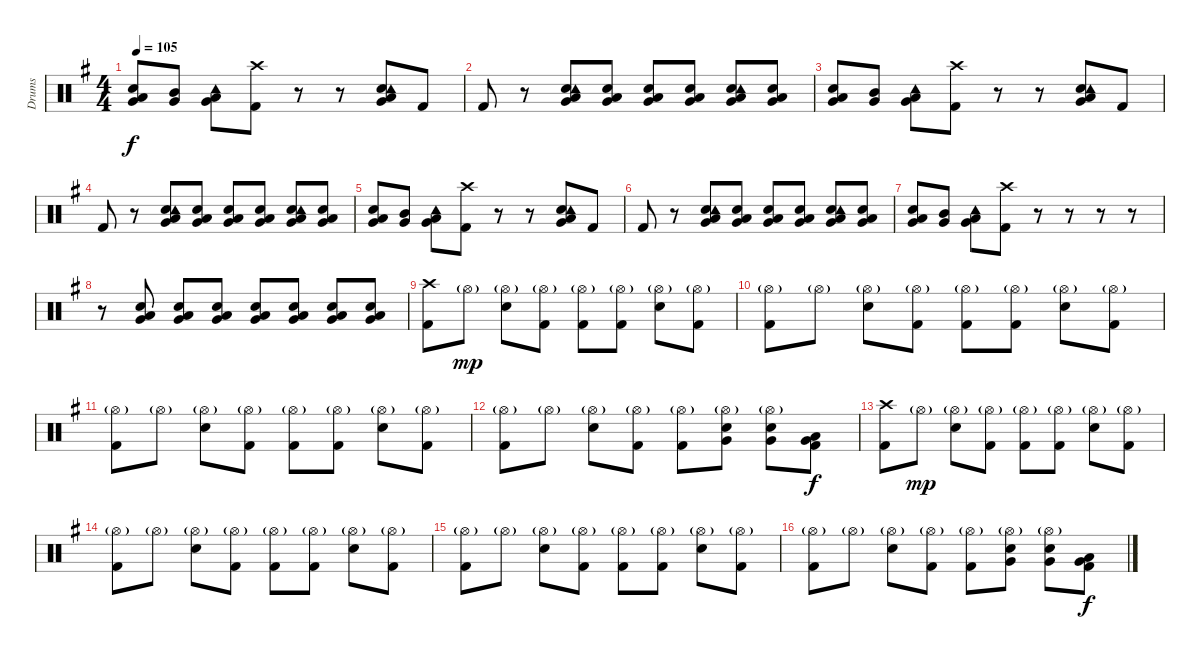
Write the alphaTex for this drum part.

\track ("Drums" "Drums") {instrument percussion}
\staff {score}
\articulation defaults
\ts (4 4)
\tempo 105
\clef neutral
\ks g
("Snare (hit) 2" "Low Tom (hit)" "Very Low Tom (hit)").8{dy f} ("Mid Tom (hit)" "Very Low Tom (hit)").8 ("Low Tom (hit)" "Very Low Tom (hit)" "Tambourine (hit)").8 ("Kick (hit) 2" "Crash high (hit)").8 r.8 r.8 ("Snare (hit) 2" "Low Tom (hit)" "Very Low Tom (hit)" "Tambourine (hit)").8 "Kick (hit) 2".8 |
"Kick (hit) 2".8 r.8 ("Snare (hit) 2" "Low Tom (hit)" "Very Low Tom (hit)" "Tambourine (hit)").8 ("Snare (hit) 2" "Low Tom (hit)" "Very Low Tom (hit)").8 ("Snare (hit) 2" "Low Tom (hit)" "Very Low Tom (hit)").8 ("Snare (hit) 2" "Low Tom (hit)" "Very Low Tom (hit)").8 ("Snare (hit) 2" "Low Tom (hit)" "Very Low Tom (hit)" "Tambourine (hit)").8 ("Snare (hit) 2" "Low Tom (hit)" "Very Low Tom (hit)").8 |
("Snare (hit) 2" "Low Tom (hit)" "Very Low Tom (hit)").8 ("Mid Tom (hit)" "Very Low Tom (hit)").8 ("Low Tom (hit)" "Very Low Tom (hit)" "Tambourine (hit)").8 ("Kick (hit) 2" "Crash high (hit)").8 r.8 r.8 ("Snare (hit) 2" "Low Tom (hit)" "Very Low Tom (hit)" "Tambourine (hit)").8 "Kick (hit) 2".8 |
"Kick (hit) 2".8 r.8 ("Snare (hit) 2" "Low Tom (hit)" "Very Low Tom (hit)" "Tambourine (hit)").8 ("Snare (hit) 2" "Low Tom (hit)" "Very Low Tom (hit)").8 ("Snare (hit) 2" "Low Tom (hit)" "Very Low Tom (hit)").8 ("Snare (hit) 2" "Low Tom (hit)" "Very Low Tom (hit)").8 ("Snare (hit) 2" "Low Tom (hit)" "Very Low Tom (hit)" "Tambourine (hit)").8 ("Snare (hit) 2" "Low Tom (hit)" "Very Low Tom (hit)").8 |
("Snare (hit) 2" "Low Tom (hit)" "Very Low Tom (hit)").8 ("Mid Tom (hit)" "Very Low Tom (hit)").8 ("Low Tom (hit)" "Very Low Tom (hit)" "Tambourine (hit)").8 ("Kick (hit) 2" "Crash high (hit)").8 r.8 r.8 ("Snare (hit) 2" "Low Tom (hit)" "Very Low Tom (hit)" "Tambourine (hit)").8 "Kick (hit) 2".8 |
"Kick (hit) 2".8 r.8 ("Snare (hit) 2" "Low Tom (hit)" "Very Low Tom (hit)" "Tambourine (hit)").8 ("Snare (hit) 2" "Low Tom (hit)" "Very Low Tom (hit)").8 ("Snare (hit) 2" "Low Tom (hit)" "Very Low Tom (hit)").8 ("Snare (hit) 2" "Low Tom (hit)" "Very Low Tom (hit)").8 ("Snare (hit) 2" "Low Tom (hit)" "Very Low Tom (hit)" "Tambourine (hit)").8 ("Snare (hit) 2" "Low Tom (hit)" "Very Low Tom (hit)").8 |
("Snare (hit) 2" "Low Tom (hit)" "Very Low Tom (hit)").8 ("Mid Tom (hit)" "Very Low Tom (hit)").8 ("Low Tom (hit)" "Very Low Tom (hit)" "Tambourine (hit)").8 ("Kick (hit) 2" "Crash high (hit)").8 r.8 r.8 r.8 r.8 |
r.8 ("Snare (hit) 2" "Low Tom (hit)" "Very Low Tom (hit)").8 ("Snare (hit) 2" "Low Tom (hit)" "Very Low Tom (hit)").8 ("Snare (hit) 2" "Low Tom (hit)" "Very Low Tom (hit)").8 ("Snare (hit) 2" "Low Tom (hit)" "Very Low Tom (hit)").8 ("Snare (hit) 2" "Low Tom (hit)" "Very Low Tom (hit)").8 ("Snare (hit) 2" "Low Tom (hit)" "Very Low Tom (hit)").8 ("Snare (hit) 2" "Low Tom (hit)" "Very Low Tom (hit)").8 |
("Kick (hit) 2" "Crash high (hit)").8 "Hi-Hat (open)"{g}.8{dy mp} ("Hi-Hat (open)"{g} "Snare (hit) 2").8 ("Hi-Hat (open)"{g} "Kick (hit) 2").8 ("Hi-Hat (open)"{g} "Kick (hit) 2").8 ("Hi-Hat (open)"{g} "Kick (hit) 2").8 ("Hi-Hat (open)"{g} "Snare (hit) 2").8 ("Hi-Hat (open)"{g} "Kick (hit) 2").8 |
("Hi-Hat (open)"{g} "Kick (hit) 2").8 "Hi-Hat (open)"{g}.8 ("Hi-Hat (open)"{g} "Snare (hit) 2").8 ("Hi-Hat (open)"{g} "Kick (hit) 2").8 ("Hi-Hat (open)"{g} "Kick (hit) 2").8 ("Hi-Hat (open)"{g} "Kick (hit) 2").8 ("Hi-Hat (open)"{g} "Snare (hit) 2").8 ("Hi-Hat (open)"{g} "Kick (hit) 2").8 |
("Hi-Hat (open)"{g} "Kick (hit) 2").8 "Hi-Hat (open)"{g}.8 ("Hi-Hat (open)"{g} "Snare (hit) 2").8 ("Hi-Hat (open)"{g} "Kick (hit) 2").8 ("Hi-Hat (open)"{g} "Kick (hit) 2").8 ("Hi-Hat (open)"{g} "Kick (hit) 2").8 ("Hi-Hat (open)"{g} "Snare (hit) 2").8 ("Hi-Hat (open)"{g} "Kick (hit) 2").8 |
("Hi-Hat (open)"{g} "Kick (hit) 2").8 "Hi-Hat (open)"{g}.8 ("Hi-Hat (open)"{g} "Snare (hit) 2").8 ("Hi-Hat (open)"{g} "Kick (hit) 2").8 ("Hi-Hat (open)"{g} "Kick (hit) 2").8 ("Hi-Hat (open)"{g} "Snare (hit) 2" "Very Low Tom (hit)").8 ("Hi-Hat (open)"{g} "Snare (hit) 2" "Very Low Tom (hit)").8 ("Kick (hit) 2" "Low Tom (hit)" "Very Low Tom (hit)").8{dy f} |
("Kick (hit) 2" "Crash high (hit)").8 "Hi-Hat (open)"{g}.8{dy mp} ("Hi-Hat (open)"{g} "Snare (hit) 2").8 ("Hi-Hat (open)"{g} "Kick (hit) 2").8 ("Hi-Hat (open)"{g} "Kick (hit) 2").8 ("Hi-Hat (open)"{g} "Kick (hit) 2").8 ("Hi-Hat (open)"{g} "Snare (hit) 2").8 ("Hi-Hat (open)"{g} "Kick (hit) 2").8 |
("Hi-Hat (open)"{g} "Kick (hit) 2").8 "Hi-Hat (open)"{g}.8 ("Hi-Hat (open)"{g} "Snare (hit) 2").8 ("Hi-Hat (open)"{g} "Kick (hit) 2").8 ("Hi-Hat (open)"{g} "Kick (hit) 2").8 ("Hi-Hat (open)"{g} "Kick (hit) 2").8 ("Hi-Hat (open)"{g} "Snare (hit) 2").8 ("Hi-Hat (open)"{g} "Kick (hit) 2").8 |
("Hi-Hat (open)"{g} "Kick (hit) 2").8 "Hi-Hat (open)"{g}.8 ("Hi-Hat (open)"{g} "Snare (hit) 2").8 ("Hi-Hat (open)"{g} "Kick (hit) 2").8 ("Hi-Hat (open)"{g} "Kick (hit) 2").8 ("Hi-Hat (open)"{g} "Kick (hit) 2").8 ("Hi-Hat (open)"{g} "Snare (hit) 2").8 ("Hi-Hat (open)"{g} "Kick (hit) 2").8 |
("Hi-Hat (open)"{g} "Kick (hit) 2").8 "Hi-Hat (open)"{g}.8 ("Hi-Hat (open)"{g} "Snare (hit) 2").8 ("Hi-Hat (open)"{g} "Kick (hit) 2").8 ("Hi-Hat (open)"{g} "Kick (hit) 2").8 ("Hi-Hat (open)"{g} "Snare (hit) 2" "Very Low Tom (hit)").8 ("Hi-Hat (open)"{g} "Snare (hit) 2" "Very Low Tom (hit)").8 ("Kick (hit) 2" "Low Tom (hit)" "Very Low Tom (hit)").8{dy f}
